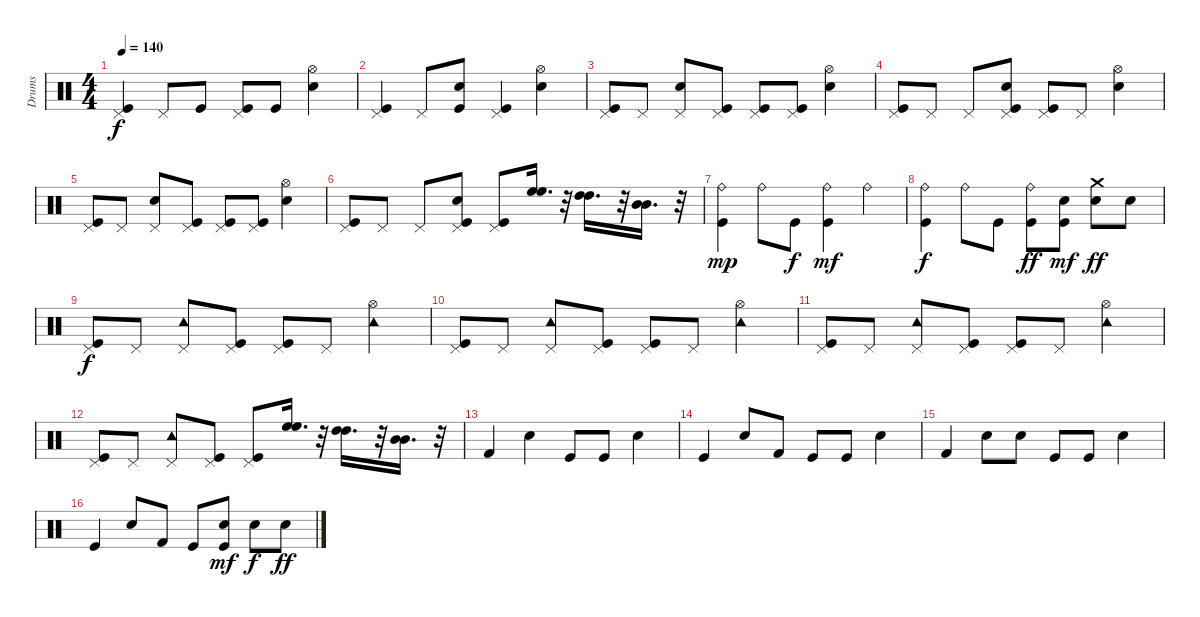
\track ("Drums" "Drums") {instrument percussion}
\staff {score}
\articulation defaults
\ts (4 4)
\tempo 140
\clef neutral
\ks c
("Pedal Hi-Hat (hit)" "Kick (hit)").4{dy f} "Pedal Hi-Hat (hit)".8 "Kick (hit)".8 ("Pedal Hi-Hat (hit)" "Kick (hit)").8 "Kick (hit)".8 ("Hi-Hat (open)" "Electric Snare (hit)").4 |
("Pedal Hi-Hat (hit)" "Kick (hit)").4 "Pedal Hi-Hat (hit)".8 ("Electric Snare (hit)" "Kick (hit)").8 ("Pedal Hi-Hat (hit)" "Kick (hit)").4 ("Hi-Hat (open)" "Electric Snare (hit)").4 |
("Pedal Hi-Hat (hit)" "Kick (hit)").8 "Pedal Hi-Hat (hit)".8 ("Pedal Hi-Hat (hit)" "Electric Snare (hit)").8 ("Pedal Hi-Hat (hit)" "Kick (hit)").8 ("Pedal Hi-Hat (hit)" "Kick (hit)").8 ("Pedal Hi-Hat (hit)" "Kick (hit)").8 ("Hi-Hat (open)" "Electric Snare (hit)").4 |
("Pedal Hi-Hat (hit)" "Kick (hit)").8 "Pedal Hi-Hat (hit)".8 "Pedal Hi-Hat (hit)".8 ("Pedal Hi-Hat (hit)" "Electric Snare (hit)" "Kick (hit)").8 ("Pedal Hi-Hat (hit)" "Kick (hit)").8 "Pedal Hi-Hat (hit)".8 ("Hi-Hat (open)" "Electric Snare (hit)").4 |
("Pedal Hi-Hat (hit)" "Kick (hit)").8 "Pedal Hi-Hat (hit)".8 ("Pedal Hi-Hat (hit)" "Electric Snare (hit)").8 ("Pedal Hi-Hat (hit)" "Kick (hit)").8 ("Pedal Hi-Hat (hit)" "Kick (hit)").8 ("Pedal Hi-Hat (hit)" "Kick (hit)").8 ("Hi-Hat (open)" "Electric Snare (hit)").4 |
("Pedal Hi-Hat (hit)" "Kick (hit)").8 "Pedal Hi-Hat (hit)".8 "Pedal Hi-Hat (hit)".8 ("Pedal Hi-Hat (hit)" "Electric Snare (hit)" "Kick (hit)").8 ("Pedal Hi-Hat (hit)" "Kick (hit)").8 ("High Floor Tom (hit)" "High Floor Tom (hit)").16{d} r.32 ("High Tom (hit)" "High Tom (hit)").16{d} r.32 ("Mid Tom (hit)" "Mid Tom (hit)").16{d} r.32 |
("Ride (bell)" "Kick (hit)").4{dy mp} "Ride (bell)".8 "Kick (hit)".8{dy f} ("Ride (bell)" "Kick (hit)").4{dy mf} "Ride (bell)".4 |
("Ride (bell)" "Kick (hit)").4{dy f} "Ride (bell)".8 "Kick (hit)".8 ("Ride (bell)" "Kick (hit)").8{dy ff} ("Electric Snare (hit)" "Kick (hit)").8{dy mf} ("Crash medium (hit)" "Electric Snare (hit)").8{dy ff} "Electric Snare (hit)".8 |
("Pedal Hi-Hat (hit)" "Kick (hit)").8{dy f} "Pedal Hi-Hat (hit)".8 ("Pedal Hi-Hat (hit)" "Tambourine (hit)").8 ("Pedal Hi-Hat (hit)" "Kick (hit)").8 ("Pedal Hi-Hat (hit)" "Kick (hit)").8 "Pedal Hi-Hat (hit)".8 ("Hi-Hat (open)" "Tambourine (hit)").4 |
("Pedal Hi-Hat (hit)" "Kick (hit)").8 "Pedal Hi-Hat (hit)".8 ("Pedal Hi-Hat (hit)" "Tambourine (hit)").8 ("Pedal Hi-Hat (hit)" "Kick (hit)").8 ("Pedal Hi-Hat (hit)" "Kick (hit)").8 "Pedal Hi-Hat (hit)".8 ("Hi-Hat (open)" "Tambourine (hit)").4 |
("Pedal Hi-Hat (hit)" "Kick (hit)").8 "Pedal Hi-Hat (hit)".8 ("Pedal Hi-Hat (hit)" "Tambourine (hit)").8 ("Pedal Hi-Hat (hit)" "Kick (hit)").8 ("Pedal Hi-Hat (hit)" "Kick (hit)").8 "Pedal Hi-Hat (hit)".8 ("Hi-Hat (open)" "Tambourine (hit)").4 |
("Pedal Hi-Hat (hit)" "Kick (hit)").8 "Pedal Hi-Hat (hit)".8 ("Pedal Hi-Hat (hit)" "Tambourine (hit)").8 ("Pedal Hi-Hat (hit)" "Kick (hit)").8 ("Pedal Hi-Hat (hit)" "Kick (hit)").8 ("High Floor Tom (hit)" "High Floor Tom (hit)").16{d} r.32 ("High Tom (hit)" "High Tom (hit)").16{d} r.32 ("Mid Tom (hit)" "Mid Tom (hit)").16{d} r.32 |
"Kick (hit) 2".4 "Electric Snare (hit)".4 "Kick (hit)".8 "Kick (hit)".8 "Electric Snare (hit)".4 |
"Kick (hit)".4 "Electric Snare (hit)".8 "Kick (hit) 2".8 "Kick (hit)".8 "Kick (hit)".8 "Electric Snare (hit)".4 |
"Kick (hit) 2".4 "Electric Snare (hit)".8 "Electric Snare (hit)".8 "Kick (hit)".8 "Kick (hit)".8 "Electric Snare (hit)".4 |
"Kick (hit)".4 "Electric Snare (hit)".8 "Kick (hit) 2".8 "Kick (hit)".8 ("Electric Snare (hit)" "Kick (hit)").8{dy mf} "Electric Snare (hit)".8{dy f} "Electric Snare (hit)".8{dy ff}
